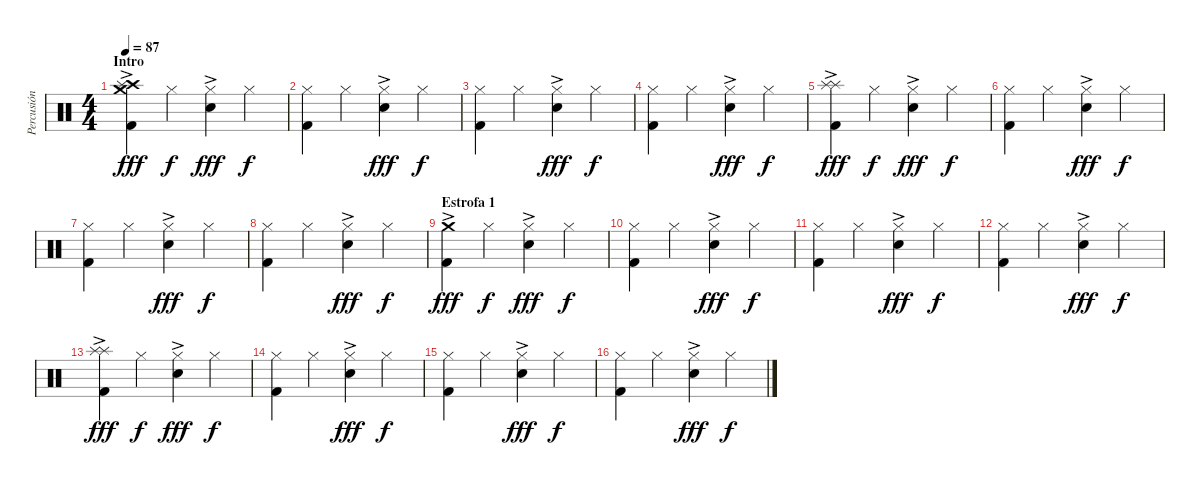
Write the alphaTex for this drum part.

\track ("Percusión" "Percusión") {instrument percussion}
\staff {score}
\articulation defaults
\ts (4 4)
\section ("" "Intro")
\tempo 87
\clef neutral
\ks c
("Crash medium (hit)"{ac} "Crash high (hit)" "Splash (hit)" "Kick (hit) 2").4{dy fff} "Hi-Hat (closed)".4{dy f} ("Hi-Hat (closed)" "Snare (hit) 2"{ac}).4{dy fff} "Hi-Hat (closed)".4{dy f} |
("Hi-Hat (closed)" "Kick (hit) 2").4 "Hi-Hat (closed)".4 ("Hi-Hat (closed)" "Snare (hit) 2"{ac}).4{dy fff} "Hi-Hat (closed)".4{dy f} |
("Hi-Hat (closed)" "Kick (hit) 2").4 "Hi-Hat (closed)".4 ("Hi-Hat (closed)"{ac} "Snare (hit) 2"{ac}).4{dy fff} "Hi-Hat (closed)".4{dy f} |
("Hi-Hat (closed)" "Kick (hit) 2").4 "Hi-Hat (closed)".4 ("Hi-Hat (closed)"{ac} "Snare (hit) 2"{ac}).4{dy fff} "Hi-Hat (closed)".4{dy f} |
("Splash (hit)"{ac} "Splash (hit)" "Kick (hit) 2").4{dy fff} "Hi-Hat (closed)".4{dy f} ("Hi-Hat (closed)" "Snare (hit) 2"{ac}).4{dy fff} "Hi-Hat (closed)".4{dy f} |
("Hi-Hat (closed)" "Kick (hit) 2").4 "Hi-Hat (closed)".4 ("Hi-Hat (closed)" "Snare (hit) 2"{ac}).4{dy fff} "Hi-Hat (closed)".4{dy f} |
("Hi-Hat (closed)" "Kick (hit) 2").4 "Hi-Hat (closed)".4 ("Hi-Hat (closed)"{ac} "Snare (hit) 2"{ac}).4{dy fff} "Hi-Hat (closed)".4{dy f} |
("Hi-Hat (closed)" "Kick (hit) 2").4 "Hi-Hat (closed)".4 ("Hi-Hat (closed)"{ac} "Snare (hit) 2"{ac}).4{dy fff} "Hi-Hat (closed)".4{dy f} |
\section ("" "Estrofa 1")
("Crash medium (hit)"{ac} "Kick (hit) 2").4{dy fff} "Hi-Hat (closed)".4{dy f} ("Hi-Hat (closed)" "Snare (hit) 2"{ac}).4{dy fff} "Hi-Hat (closed)".4{dy f} |
("Hi-Hat (closed)" "Kick (hit) 2").4 "Hi-Hat (closed)".4 ("Hi-Hat (closed)" "Snare (hit) 2"{ac}).4{dy fff} "Hi-Hat (closed)".4{dy f} |
("Hi-Hat (closed)" "Kick (hit) 2").4 "Hi-Hat (closed)".4 ("Hi-Hat (closed)"{ac} "Snare (hit) 2"{ac}).4{dy fff} "Hi-Hat (closed)".4{dy f} |
("Hi-Hat (closed)" "Kick (hit) 2").4 "Hi-Hat (closed)".4 ("Hi-Hat (closed)"{ac} "Snare (hit) 2"{ac}).4{dy fff} "Hi-Hat (closed)".4{dy f} |
("Splash (hit)"{ac} "Splash (hit)" "Kick (hit) 2").4{dy fff} "Hi-Hat (closed)".4{dy f} ("Hi-Hat (closed)" "Snare (hit) 2"{ac}).4{dy fff} "Hi-Hat (closed)".4{dy f} |
("Hi-Hat (closed)" "Kick (hit) 2").4 "Hi-Hat (closed)".4 ("Hi-Hat (closed)" "Snare (hit) 2"{ac}).4{dy fff} "Hi-Hat (closed)".4{dy f} |
("Hi-Hat (closed)" "Kick (hit) 2").4 "Hi-Hat (closed)".4 ("Hi-Hat (closed)"{ac} "Snare (hit) 2"{ac}).4{dy fff} "Hi-Hat (closed)".4{dy f} |
("Hi-Hat (closed)" "Kick (hit) 2").4 "Hi-Hat (closed)".4 ("Hi-Hat (closed)"{ac} "Snare (hit) 2"{ac}).4{dy fff} "Hi-Hat (closed)".4{dy f}
